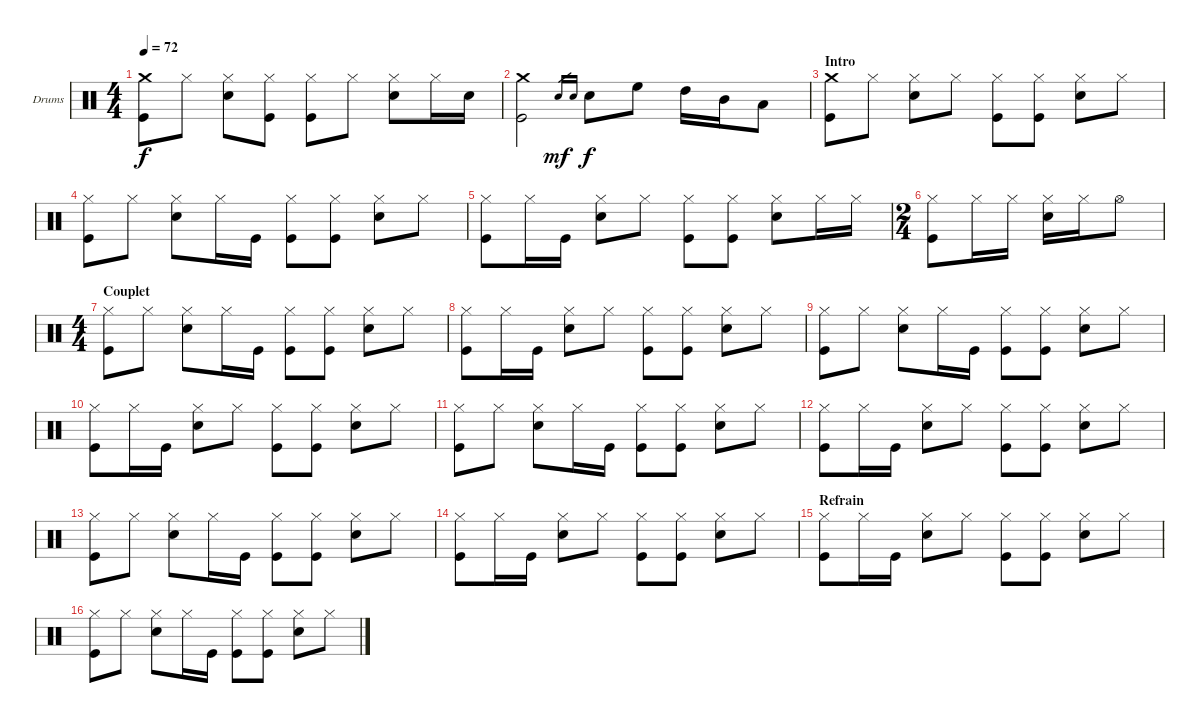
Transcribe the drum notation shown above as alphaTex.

\bracketExtendMode groupsimilarinstruments
\firstSystemTrackNameOrientation horizontal
\otherSystemsTrackNameOrientation horizontal
\track ("Roger Taylor" "Drums") {multiBarRest instrument percussion}
\staff {score}
\articulation defaults
\ts (4 4)
\tempo 72
\clef neutral
\ks c
("Crash medium (hit)" "Kick (hit)").8{dy f} "Hi-Hat (closed)".8 ("Hi-Hat (closed)" "Snare (hit) 2").8 ("Hi-Hat (closed)" "Kick (hit)").8 ("Hi-Hat (closed)" "Kick (hit)").8 "Hi-Hat (closed)".8 ("Hi-Hat (closed)" "Snare (hit) 2").8 "Hi-Hat (closed)".16 "Snare (hit) 2".16 |
("Crash medium (hit)" "Kick (hit)").2 "Snare (hit) 2".16{gr dy mf} "Snare (hit) 2".16{gr} "Snare (hit) 2".8{dy f} "High Floor Tom (hit)".8 "High Tom (hit)".16 "Mid Tom (hit)".16 "Low Tom (hit)".8 |
\section ("" "Intro")
("Crash medium (hit)" "Kick (hit)").8 "Hi-Hat (closed)".8 ("Hi-Hat (closed)" "Snare (hit) 2").8 "Hi-Hat (closed)".8 ("Hi-Hat (closed)" "Kick (hit)").8 ("Hi-Hat (closed)" "Kick (hit)").8 ("Hi-Hat (closed)" "Snare (hit) 2").8 "Hi-Hat (closed)".8 |
("Hi-Hat (closed)" "Kick (hit)").8 "Hi-Hat (closed)".8 ("Hi-Hat (closed)" "Snare (hit) 2").8 "Hi-Hat (closed)".16 "Kick (hit)".16 ("Hi-Hat (closed)" "Kick (hit)").8 ("Hi-Hat (closed)" "Kick (hit)").8 ("Hi-Hat (closed)" "Snare (hit) 2").8 "Hi-Hat (closed)".8 |
("Hi-Hat (closed)" "Kick (hit)").8 "Hi-Hat (closed)".16 "Kick (hit)".16 ("Hi-Hat (closed)" "Snare (hit) 2").8 "Hi-Hat (closed)".8 ("Hi-Hat (closed)" "Kick (hit)").8 ("Hi-Hat (closed)" "Kick (hit)").8 ("Hi-Hat (closed)" "Snare (hit) 2").8 "Hi-Hat (closed)".16 "Hi-Hat (closed)".16 |
\ts (2 4)
("Hi-Hat (closed)" "Kick (hit)").8 "Hi-Hat (closed)".16 "Hi-Hat (closed)".16 ("Hi-Hat (closed)" "Snare (hit) 2").16 "Hi-Hat (closed)".16 "Hi-Hat (open)".8 |
\ts (4 4)
\section ("" "Couplet")
("Hi-Hat (closed)" "Kick (hit)").8 "Hi-Hat (closed)".8 ("Hi-Hat (closed)" "Snare (hit) 2").8 "Hi-Hat (closed)".16 "Kick (hit)".16 ("Hi-Hat (closed)" "Kick (hit)").8 ("Hi-Hat (closed)" "Kick (hit)").8 ("Hi-Hat (closed)" "Snare (hit) 2").8 "Hi-Hat (closed)".8 |
("Hi-Hat (closed)" "Kick (hit)").8 "Hi-Hat (closed)".16 "Kick (hit)".16 ("Hi-Hat (closed)" "Snare (hit) 2").8 "Hi-Hat (closed)".8 ("Hi-Hat (closed)" "Kick (hit)").8 ("Hi-Hat (closed)" "Kick (hit)").8 ("Hi-Hat (closed)" "Snare (hit) 2").8 "Hi-Hat (closed)".8 |
("Hi-Hat (closed)" "Kick (hit)").8 "Hi-Hat (closed)".8 ("Hi-Hat (closed)" "Snare (hit) 2").8 "Hi-Hat (closed)".16 "Kick (hit)".16 ("Hi-Hat (closed)" "Kick (hit)").8 ("Hi-Hat (closed)" "Kick (hit)").8 ("Hi-Hat (closed)" "Snare (hit) 2").8 "Hi-Hat (closed)".8 |
("Hi-Hat (closed)" "Kick (hit)").8 "Hi-Hat (closed)".16 "Kick (hit)".16 ("Hi-Hat (closed)" "Snare (hit) 2").8 "Hi-Hat (closed)".8 ("Hi-Hat (closed)" "Kick (hit)").8 ("Hi-Hat (closed)" "Kick (hit)").8 ("Hi-Hat (closed)" "Snare (hit) 2").8 "Hi-Hat (closed)".8 |
("Hi-Hat (closed)" "Kick (hit)").8 "Hi-Hat (closed)".8 ("Hi-Hat (closed)" "Snare (hit) 2").8 "Hi-Hat (closed)".16 "Kick (hit)".16 ("Hi-Hat (closed)" "Kick (hit)").8 ("Hi-Hat (closed)" "Kick (hit)").8 ("Hi-Hat (closed)" "Snare (hit) 2").8 "Hi-Hat (closed)".8 |
("Hi-Hat (closed)" "Kick (hit)").8 "Hi-Hat (closed)".16 "Kick (hit)".16 ("Hi-Hat (closed)" "Snare (hit) 2").8 "Hi-Hat (closed)".8 ("Hi-Hat (closed)" "Kick (hit)").8 ("Hi-Hat (closed)" "Kick (hit)").8 ("Hi-Hat (closed)" "Snare (hit) 2").8 "Hi-Hat (closed)".8 |
("Hi-Hat (closed)" "Kick (hit)").8 "Hi-Hat (closed)".8 ("Hi-Hat (closed)" "Snare (hit) 2").8 "Hi-Hat (closed)".16 "Kick (hit)".16 ("Hi-Hat (closed)" "Kick (hit)").8 ("Hi-Hat (closed)" "Kick (hit)").8 ("Hi-Hat (closed)" "Snare (hit) 2").8 "Hi-Hat (closed)".8 |
("Hi-Hat (closed)" "Kick (hit)").8 "Hi-Hat (closed)".16 "Kick (hit)".16 ("Hi-Hat (closed)" "Snare (hit) 2").8 "Hi-Hat (closed)".8 ("Hi-Hat (closed)" "Kick (hit)").8 ("Hi-Hat (closed)" "Kick (hit)").8 ("Hi-Hat (closed)" "Snare (hit) 2").8 "Hi-Hat (closed)".8 |
\section ("" "Refrain")
("Hi-Hat (closed)" "Kick (hit)").8 "Hi-Hat (closed)".16 "Kick (hit)".16 ("Hi-Hat (closed)" "Snare (hit) 2").8 "Hi-Hat (closed)".8 ("Hi-Hat (closed)" "Kick (hit)").8 ("Hi-Hat (closed)" "Kick (hit)").8 ("Hi-Hat (closed)" "Snare (hit) 2").8 "Hi-Hat (closed)".8 |
("Hi-Hat (closed)" "Kick (hit)").8 "Hi-Hat (closed)".8 ("Hi-Hat (closed)" "Snare (hit) 2").8 "Hi-Hat (closed)".16 "Kick (hit)".16 ("Hi-Hat (closed)" "Kick (hit)").8 ("Hi-Hat (closed)" "Kick (hit)").8 ("Hi-Hat (closed)" "Snare (hit) 2").8 "Hi-Hat (closed)".8
